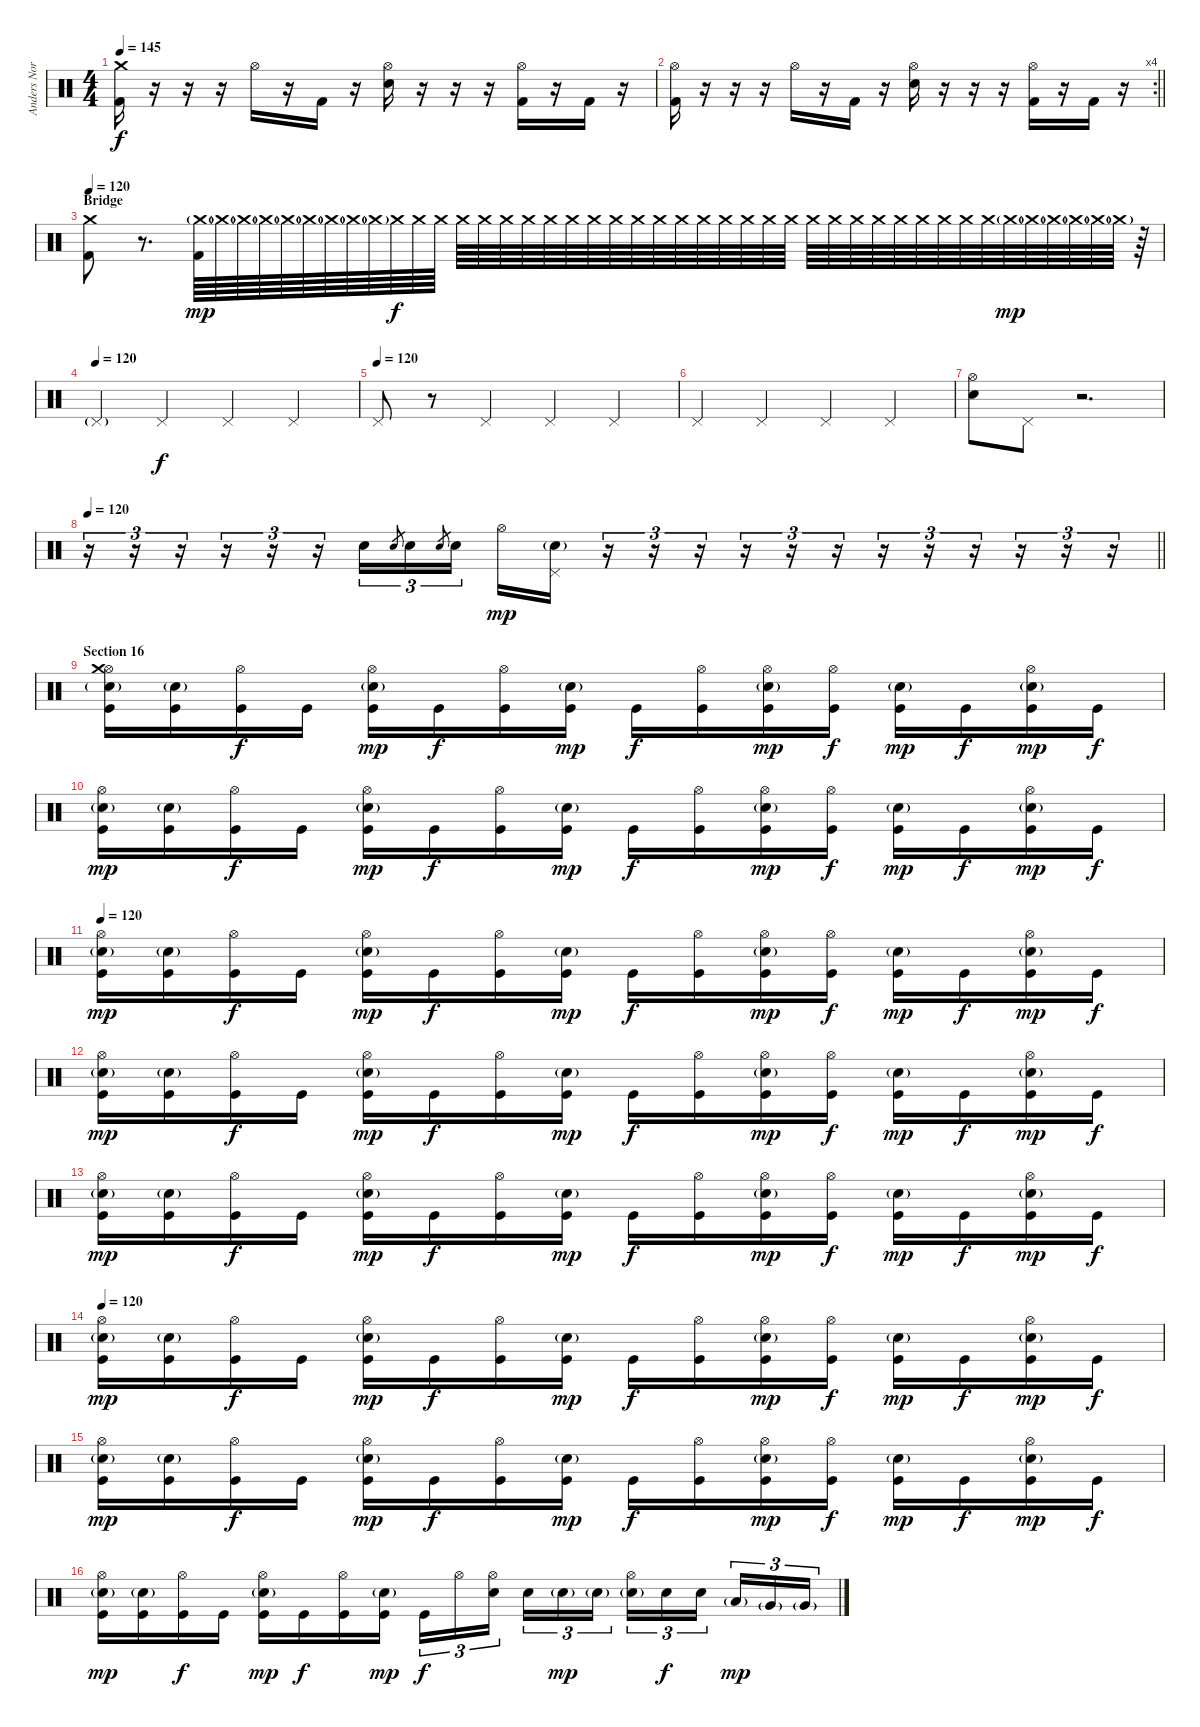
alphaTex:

\track ("Anders Nordin" "Anders Nor") {instrument percussion}
\staff {score}
\articulation defaults
\ts (4 4)
\tempo 145
\clef neutral
\ks c
("Crash medium (hit)" "Kick (hit) 2").16{dy f} r.16 r.16 r.16 "Hi-Hat (open)".16 r.16 "Kick (hit) 2".16 r.16 ("Hi-Hat (open)" "Snare (hit) 2").16 r.16 r.16 r.16 ("Hi-Hat (open)" "Kick (hit) 2").16 r.16 "Kick (hit) 2".16 r.16 |
\rc 4
\barLineRight lightlight
("Hi-Hat (open)" "Kick (hit) 2").16 r.16 r.16 r.16 "Hi-Hat (open)".16 r.16 "Kick (hit) 2".16 r.16 ("Hi-Hat (open)" "Snare (hit) 2").16 r.16 r.16 r.16 ("Hi-Hat (open)" "Kick (hit) 2").16 r.16 "Kick (hit) 2".16 r.16 |
\section ("" "Bridge")
\tempo 120
("Kick (hit) 2" "Crash medium (hit)").8 r.8{d volume 4} ("Kick (hit) 2" "Crash medium (hit)"{g}).64{dy mp volume 11} "Crash medium (hit)"{g}.64 "Crash medium (hit)"{g}.64 "Crash medium (hit)"{g}.64 "Crash medium (hit)"{g}.64 "Crash medium (hit)"{g}.64 "Crash medium (hit)"{g}.64 "Crash medium (hit)"{g}.64 "Crash medium (hit)"{g}.64 "Crash medium (hit)".64{dy f} "Crash medium (hit)".64 "Crash medium (hit)".64 "Crash medium (hit)".64 "Crash medium (hit)".64 "Crash medium (hit)".64 "Crash medium (hit)".64 "Crash medium (hit)".64 "Crash medium (hit)".64 "Crash medium (hit)".64 "Crash medium (hit)".64 "Crash medium (hit)".64 "Crash medium (hit)".64 "Crash medium (hit)".64 "Crash medium (hit)".64 "Crash medium (hit)".64 "Crash medium (hit)".64 "Crash medium (hit)".64 "Crash medium (hit)".64 "Crash medium (hit)".64 "Crash medium (hit)".64 "Crash medium (hit)".64 "Crash medium (hit)".64 "Crash medium (hit)".64 "Crash medium (hit)".64 "Crash medium (hit)".64 "Crash medium (hit)".64 "Crash medium (hit)".64 "Crash medium (hit)"{g}.64{dy mp} "Crash medium (hit)"{g}.64 "Crash medium (hit)"{g}.64 "Crash medium (hit)"{g}.64 "Crash medium (hit)"{g}.64 "Crash medium (hit)"{g}.64 r.64 |
\tempo (120)
"Pedal Hi-Hat (hit)"{g}.4{volume 14} "Pedal Hi-Hat (hit)".4{dy f} "Pedal Hi-Hat (hit)".4 "Pedal Hi-Hat (hit)".4 |
\tempo (120)
"Pedal Hi-Hat (hit)".8 r.8 "Pedal Hi-Hat (hit)".4 "Pedal Hi-Hat (hit)".4 "Pedal Hi-Hat (hit)".4 |
"Pedal Hi-Hat (hit)".4 "Pedal Hi-Hat (hit)".4 "Pedal Hi-Hat (hit)".4 "Pedal Hi-Hat (hit)".4 |
("Hi-Hat (open)" "Snare (hit) 2").8{volume 16} "Pedal Hi-Hat (hit)".8 r.2{d} |
\tempo 120
\barLineRight lightlight
r.16{tu (3 2)} r.16{tu (3 2)} r.16{tu (3 2)} r.16{tu (3 2)} r.16{tu (3 2)} r.16{tu (3 2)} "Snare (hit) 2".16{tu (3 2)} "Snare (hit) 2".8{gr} "Snare (hit) 2".16{tu (3 2)} "Snare (hit) 2".8{gr} "Snare (hit) 2".16{tu (3 2) beam splitsecondary} "Hi-Hat (open)".16{dy mp} ("Snare (hit) 2"{g} "Pedal Hi-Hat (hit)").16 r.16{tu (3 2)} r.16{tu (3 2)} r.16{tu (3 2)} r.16{tu (3 2)} r.16{tu (3 2)} r.16{tu (3 2)} r.16{tu (3 2)} r.16{tu (3 2)} r.16{tu (3 2)} r.16{tu (3 2)} r.16{tu (3 2)} r.16{tu (3 2)} |
\section ("" "Section 16")
("Snare (hit) 2"{g} "Hi-Hat (open)" "Crash medium (hit)" "Kick (hit)").16 ("Snare (hit) 2"{g} "Kick (hit)").16 ("Hi-Hat (open)" "Kick (hit)").16{dy f} "Kick (hit)".16 ("Snare (hit) 2"{g} "Hi-Hat (open)" "Kick (hit)").16{dy mp} "Kick (hit)".16{dy f} ("Hi-Hat (open)" "Kick (hit)").16 ("Snare (hit) 2"{g} "Kick (hit)").16{dy mp} "Kick (hit)".16{dy f} ("Hi-Hat (open)" "Kick (hit)").16 ("Snare (hit) 2"{g} "Hi-Hat (open)" "Kick (hit)").16{dy mp} ("Hi-Hat (open)" "Kick (hit)").16{dy f} ("Snare (hit) 2"{g} "Kick (hit)").16{dy mp} "Kick (hit)".16{dy f} ("Snare (hit) 2"{g} "Hi-Hat (open)" "Kick (hit)").16{dy mp} "Kick (hit)".16{dy f} |
("Snare (hit) 2"{g} "Hi-Hat (open)" "Kick (hit)").16{dy mp} ("Snare (hit) 2"{g} "Kick (hit)").16 ("Hi-Hat (open)" "Kick (hit)").16{dy f} "Kick (hit)".16 ("Snare (hit) 2"{g} "Hi-Hat (open)" "Kick (hit)").16{dy mp} "Kick (hit)".16{dy f} ("Hi-Hat (open)" "Kick (hit)").16 ("Snare (hit) 2"{g} "Kick (hit)").16{dy mp} "Kick (hit)".16{dy f} ("Hi-Hat (open)" "Kick (hit)").16 ("Snare (hit) 2"{g} "Hi-Hat (open)" "Kick (hit)").16{dy mp} ("Hi-Hat (open)" "Kick (hit)").16{dy f} ("Snare (hit) 2"{g} "Kick (hit)").16{dy mp} "Kick (hit)".16{dy f} ("Snare (hit) 2"{g} "Hi-Hat (open)" "Kick (hit)").16{dy mp} "Kick (hit)".16{dy f} |
\tempo 120
("Snare (hit) 2"{g} "Hi-Hat (open)" "Kick (hit)").16{dy mp} ("Snare (hit) 2"{g} "Kick (hit)").16 ("Hi-Hat (open)" "Kick (hit)").16{dy f} "Kick (hit)".16 ("Snare (hit) 2"{g} "Hi-Hat (open)" "Kick (hit)").16{dy mp} "Kick (hit)".16{dy f} ("Hi-Hat (open)" "Kick (hit)").16 ("Snare (hit) 2"{g} "Kick (hit)").16{dy mp} "Kick (hit)".16{dy f} ("Hi-Hat (open)" "Kick (hit)").16 ("Snare (hit) 2"{g} "Hi-Hat (open)" "Kick (hit)").16{dy mp} ("Hi-Hat (open)" "Kick (hit)").16{dy f} ("Snare (hit) 2"{g} "Kick (hit)").16{dy mp} "Kick (hit)".16{dy f} ("Snare (hit) 2"{g} "Hi-Hat (open)" "Kick (hit)").16{dy mp} "Kick (hit)".16{dy f} |
("Snare (hit) 2"{g} "Hi-Hat (open)" "Kick (hit)").16{dy mp} ("Snare (hit) 2"{g} "Kick (hit)").16 ("Hi-Hat (open)" "Kick (hit)").16{dy f} "Kick (hit)".16 ("Snare (hit) 2"{g} "Hi-Hat (open)" "Kick (hit)").16{dy mp} "Kick (hit)".16{dy f} ("Hi-Hat (open)" "Kick (hit)").16 ("Snare (hit) 2"{g} "Kick (hit)").16{dy mp} "Kick (hit)".16{dy f} ("Hi-Hat (open)" "Kick (hit)").16 ("Snare (hit) 2"{g} "Hi-Hat (open)" "Kick (hit)").16{dy mp} ("Hi-Hat (open)" "Kick (hit)").16{dy f} ("Snare (hit) 2"{g} "Kick (hit)").16{dy mp} "Kick (hit)".16{dy f} ("Snare (hit) 2"{g} "Hi-Hat (open)" "Kick (hit)").16{dy mp} "Kick (hit)".16{dy f} |
("Snare (hit) 2"{g} "Hi-Hat (open)" "Kick (hit)").16{dy mp} ("Snare (hit) 2"{g} "Kick (hit)").16 ("Hi-Hat (open)" "Kick (hit)").16{dy f} "Kick (hit)".16 ("Snare (hit) 2"{g} "Hi-Hat (open)" "Kick (hit)").16{dy mp} "Kick (hit)".16{dy f} ("Hi-Hat (open)" "Kick (hit)").16 ("Snare (hit) 2"{g} "Kick (hit)").16{dy mp} "Kick (hit)".16{dy f} ("Hi-Hat (open)" "Kick (hit)").16 ("Snare (hit) 2"{g} "Hi-Hat (open)" "Kick (hit)").16{dy mp} ("Hi-Hat (open)" "Kick (hit)").16{dy f} ("Snare (hit) 2"{g} "Kick (hit)").16{dy mp} "Kick (hit)".16{dy f} ("Snare (hit) 2"{g} "Hi-Hat (open)" "Kick (hit)").16{dy mp} "Kick (hit)".16{dy f} |
\tempo 120
("Snare (hit) 2"{g} "Hi-Hat (open)" "Kick (hit)").16{dy mp} ("Snare (hit) 2"{g} "Kick (hit)").16 ("Hi-Hat (open)" "Kick (hit)").16{dy f} "Kick (hit)".16 ("Snare (hit) 2"{g} "Hi-Hat (open)" "Kick (hit)").16{dy mp} "Kick (hit)".16{dy f} ("Hi-Hat (open)" "Kick (hit)").16 ("Snare (hit) 2"{g} "Kick (hit)").16{dy mp} "Kick (hit)".16{dy f} ("Hi-Hat (open)" "Kick (hit)").16 ("Snare (hit) 2"{g} "Hi-Hat (open)" "Kick (hit)").16{dy mp} ("Hi-Hat (open)" "Kick (hit)").16{dy f} ("Snare (hit) 2"{g} "Kick (hit)").16{dy mp} "Kick (hit)".16{dy f} ("Snare (hit) 2"{g} "Hi-Hat (open)" "Kick (hit)").16{dy mp} "Kick (hit)".16{dy f} |
("Snare (hit) 2"{g} "Hi-Hat (open)" "Kick (hit)").16{dy mp} ("Snare (hit) 2"{g} "Kick (hit)").16 ("Hi-Hat (open)" "Kick (hit)").16{dy f} "Kick (hit)".16 ("Snare (hit) 2"{g} "Hi-Hat (open)" "Kick (hit)").16{dy mp} "Kick (hit)".16{dy f} ("Hi-Hat (open)" "Kick (hit)").16 ("Snare (hit) 2"{g} "Kick (hit)").16{dy mp} "Kick (hit)".16{dy f} ("Hi-Hat (open)" "Kick (hit)").16 ("Snare (hit) 2"{g} "Hi-Hat (open)" "Kick (hit)").16{dy mp} ("Hi-Hat (open)" "Kick (hit)").16{dy f} ("Snare (hit) 2"{g} "Kick (hit)").16{dy mp} "Kick (hit)".16{dy f} ("Snare (hit) 2"{g} "Hi-Hat (open)" "Kick (hit)").16{dy mp} "Kick (hit)".16{dy f} |
("Snare (hit) 2"{g} "Hi-Hat (open)" "Kick (hit)").16{dy mp} ("Snare (hit) 2"{g} "Kick (hit)").16 ("Hi-Hat (open)" "Kick (hit)").16{dy f} "Kick (hit)".16 ("Snare (hit) 2"{g} "Hi-Hat (open)" "Kick (hit)").16{dy mp} "Kick (hit)".16{dy f} ("Hi-Hat (open)" "Kick (hit)").16 ("Snare (hit) 2"{g} "Kick (hit)").16{dy mp} "Kick (hit)".16{tu (3 2) dy f} "Hi-Hat (open)".16{tu (3 2)} ("Snare (hit) 2" "Hi-Hat (open)").16{tu (3 2) beam splitsecondary} "Snare (hit) 2".16{tu (3 2)} "Snare (hit) 2"{g}.16{tu (3 2) dy mp} "Snare (hit) 2"{g}.16{tu (3 2)} ("Snare (hit) 2"{g} "Hi-Hat (open)").16{tu (3 2)} "Snare (hit) 2".16{tu (3 2) dy f} "Snare (hit) 2".16{tu (3 2) beam splitsecondary} "Low Tom (hit)"{g}.16{tu (3 2) dy mp} "Very Low Tom (hit)"{g}.16{tu (3 2)} "Very Low Tom (hit)"{g}.16{tu (3 2)}
